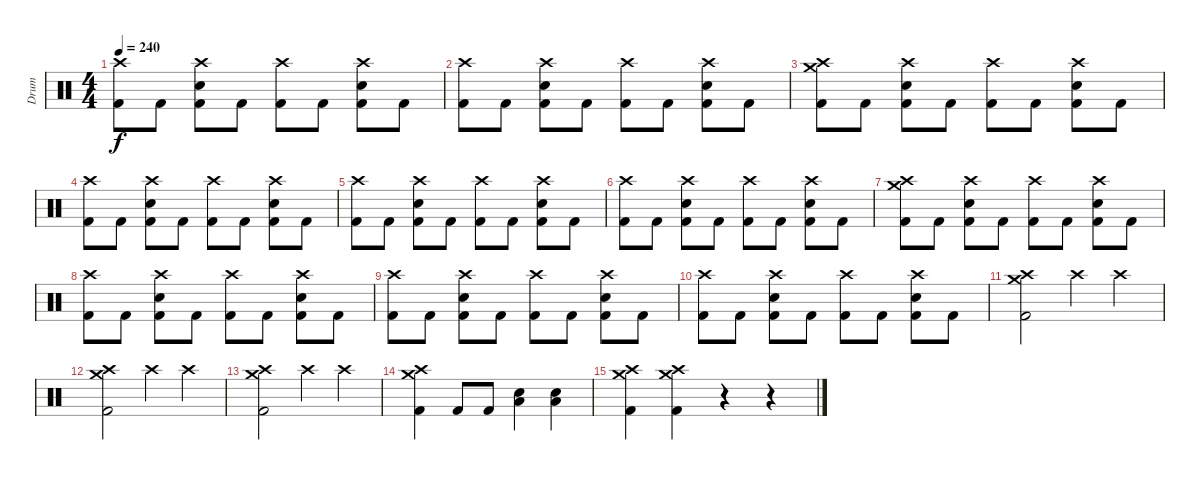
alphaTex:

\track ("Drum" "Drum") {instrument percussion}
\staff {score}
\articulation defaults
\ts (4 4)
\tempo 240
\clef neutral
\ks c
("Crash high (hit)" "Kick (hit) 2").8{dy f} "Kick (hit) 2".8 ("Crash high (hit)" "Kick (hit) 2" "Electric Snare (hit)").8 "Kick (hit) 2".8 ("Crash high (hit)" "Kick (hit) 2").8 "Kick (hit) 2".8 ("Crash high (hit)" "Kick (hit) 2" "Electric Snare (hit)").8 "Kick (hit) 2".8 |
("Crash high (hit)" "Kick (hit) 2").8 "Kick (hit) 2".8 ("Crash high (hit)" "Kick (hit) 2" "Electric Snare (hit)").8 "Kick (hit) 2".8 ("Crash high (hit)" "Kick (hit) 2").8 "Kick (hit) 2".8 ("Crash high (hit)" "Kick (hit) 2" "Electric Snare (hit)").8 "Kick (hit) 2".8 |
("Crash high (hit)" "Kick (hit) 2" "Crash medium (hit)").8 "Kick (hit) 2".8 ("Crash high (hit)" "Kick (hit) 2" "Electric Snare (hit)").8 "Kick (hit) 2".8 ("Crash high (hit)" "Kick (hit) 2").8 "Kick (hit) 2".8 ("Crash high (hit)" "Kick (hit) 2" "Electric Snare (hit)").8 "Kick (hit) 2".8 |
("Crash high (hit)" "Kick (hit) 2").8 "Kick (hit) 2".8 ("Crash high (hit)" "Kick (hit) 2" "Electric Snare (hit)").8 "Kick (hit) 2".8 ("Crash high (hit)" "Kick (hit) 2").8 "Kick (hit) 2".8 ("Crash high (hit)" "Kick (hit) 2" "Electric Snare (hit)").8 "Kick (hit) 2".8 |
("Crash high (hit)" "Kick (hit) 2").8 "Kick (hit) 2".8 ("Crash high (hit)" "Kick (hit) 2" "Electric Snare (hit)").8 "Kick (hit) 2".8 ("Crash high (hit)" "Kick (hit) 2").8 "Kick (hit) 2".8 ("Crash high (hit)" "Kick (hit) 2" "Electric Snare (hit)").8 "Kick (hit) 2".8 |
("Crash high (hit)" "Kick (hit) 2").8 "Kick (hit) 2".8 ("Crash high (hit)" "Kick (hit) 2" "Electric Snare (hit)").8 "Kick (hit) 2".8 ("Crash high (hit)" "Kick (hit) 2").8 "Kick (hit) 2".8 ("Crash high (hit)" "Kick (hit) 2" "Electric Snare (hit)").8 "Kick (hit) 2".8 |
("Crash high (hit)" "Kick (hit) 2" "Crash medium (hit)").8 "Kick (hit) 2".8 ("Crash high (hit)" "Kick (hit) 2" "Electric Snare (hit)").8 "Kick (hit) 2".8 ("Crash high (hit)" "Kick (hit) 2").8 "Kick (hit) 2".8 ("Crash high (hit)" "Kick (hit) 2" "Electric Snare (hit)").8 "Kick (hit) 2".8 |
("Crash high (hit)" "Kick (hit) 2").8 "Kick (hit) 2".8 ("Crash high (hit)" "Kick (hit) 2" "Electric Snare (hit)").8 "Kick (hit) 2".8 ("Crash high (hit)" "Kick (hit) 2").8 "Kick (hit) 2".8 ("Crash high (hit)" "Kick (hit) 2" "Electric Snare (hit)").8 "Kick (hit) 2".8 |
("Crash high (hit)" "Kick (hit) 2").8 "Kick (hit) 2".8 ("Crash high (hit)" "Kick (hit) 2" "Electric Snare (hit)").8 "Kick (hit) 2".8 ("Crash high (hit)" "Kick (hit) 2").8 "Kick (hit) 2".8 ("Crash high (hit)" "Kick (hit) 2" "Electric Snare (hit)").8 "Kick (hit) 2".8 |
("Crash high (hit)" "Kick (hit) 2").8 "Kick (hit) 2".8 ("Crash high (hit)" "Kick (hit) 2" "Electric Snare (hit)").8 "Kick (hit) 2".8 ("Crash high (hit)" "Kick (hit) 2").8 "Kick (hit) 2".8 ("Crash high (hit)" "Kick (hit) 2" "Electric Snare (hit)").8 "Kick (hit) 2".8 |
("Crash high (hit)" "Kick (hit) 2" "Crash medium (hit)").2 "Crash high (hit)".4 "Crash high (hit)".4 |
("Crash high (hit)" "Kick (hit) 2" "Crash medium (hit)").2 "Crash high (hit)".4 "Crash high (hit)".4 |
("Crash high (hit)" "Kick (hit) 2" "Crash medium (hit)").2 "Crash high (hit)".4 "Crash high (hit)".4 |
("Crash high (hit)" "Kick (hit) 2" "Crash medium (hit)").4 "Kick (hit) 2".8 "Kick (hit) 2".8 ("Low Floor Tom (hit)" "Electric Snare (hit)").4 ("Low Floor Tom (hit)" "Electric Snare (hit)").4 |
("Crash high (hit)" "Kick (hit) 2" "Crash medium (hit)").4 ("Crash high (hit)" "Kick (hit) 2" "Crash medium (hit)").4 r.4 r.4
